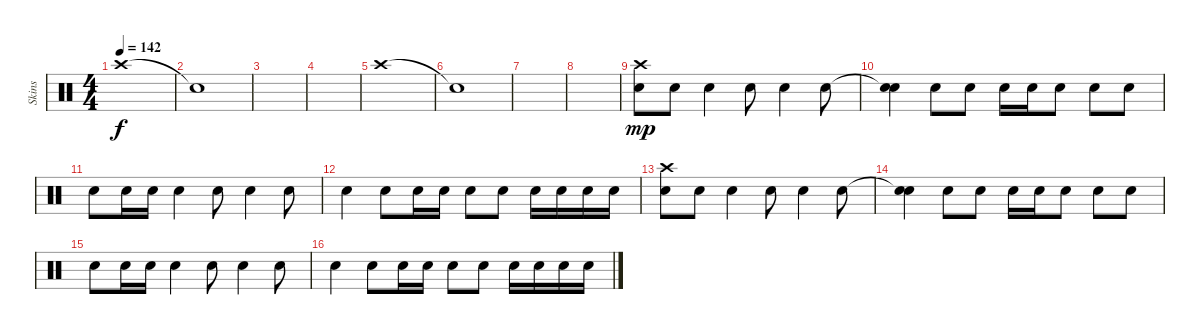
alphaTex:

\track ("Skins" "Skins") {instrument percussion}
\staff {score}
\articulation defaults
\ts (4 4)
\tempo 142
\clef neutral
\ks c "Crash high (hit)".1{dy f}
|
"Snare (hit)"{t}.1 |
|
|
"Crash high (hit)".1 |
"Snare (hit)"{t}.1 |
|
|
("Crash high (hit)" "Snare (hit) 2").8{dy mp} "Snare (hit) 2".8 "Snare (hit) 2".4 "Snare (hit) 2".8 "Snare (hit) 2".4 "Snare (hit) 2".8 |
("Snare (hit)"{t} "Snare (hit) 2").4 "Snare (hit) 2".8 "Snare (hit) 2".8 "Snare (hit) 2".16 "Snare (hit) 2".16 "Snare (hit) 2".8 "Snare (hit) 2".8 "Snare (hit) 2".8 |
"Snare (hit) 2".8 "Snare (hit) 2".16 "Snare (hit) 2".16 "Snare (hit) 2".4 "Snare (hit) 2".8 "Snare (hit) 2".4 "Snare (hit) 2".8 |
"Snare (hit) 2".4 "Snare (hit) 2".8 "Snare (hit) 2".16 "Snare (hit) 2".16 "Snare (hit) 2".8 "Snare (hit) 2".8 "Snare (hit) 2".16 "Snare (hit) 2".16 "Snare (hit) 2".16 "Snare (hit) 2".16 |
("Crash high (hit)" "Snare (hit) 2").8 "Snare (hit) 2".8 "Snare (hit) 2".4 "Snare (hit) 2".8 "Snare (hit) 2".4 "Snare (hit) 2".8 |
("Snare (hit)"{t} "Snare (hit) 2").4 "Snare (hit) 2".8 "Snare (hit) 2".8 "Snare (hit) 2".16 "Snare (hit) 2".16 "Snare (hit) 2".8 "Snare (hit) 2".8 "Snare (hit) 2".8 |
"Snare (hit) 2".8 "Snare (hit) 2".16 "Snare (hit) 2".16 "Snare (hit) 2".4 "Snare (hit) 2".8 "Snare (hit) 2".4 "Snare (hit) 2".8 |
"Snare (hit) 2".4 "Snare (hit) 2".8 "Snare (hit) 2".16 "Snare (hit) 2".16 "Snare (hit) 2".8 "Snare (hit) 2".8 "Snare (hit) 2".16 "Snare (hit) 2".16 "Snare (hit) 2".16 "Snare (hit) 2".16
